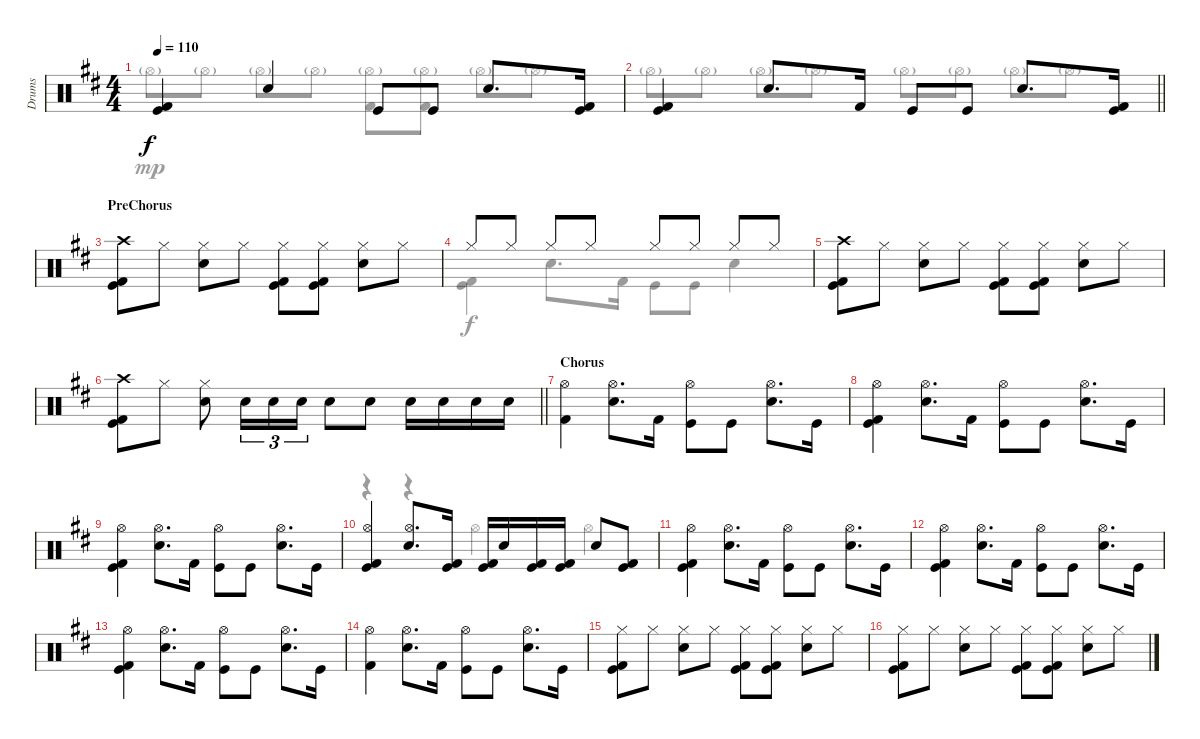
\track ("Drums" "Drums") {instrument percussion}
\staff {score}
\articulation defaults
\voice
\ts (4 4)
\tempo 110
\clef neutral
\ks d
("Kick (hit) 2" "Kick (hit)").4{dy f} "Snare (hit) 2".4 "Kick (hit)".8 "Kick (hit)".8 "Snare (hit) 2".8{d} ("Kick (hit)" "Kick (hit) 2").16 |
\barLineRight lightlight
("Kick (hit) 2" "Kick (hit)").4 "Snare (hit) 2".8{d} "Kick (hit) 2".16 "Kick (hit)".8 "Kick (hit)".8 "Snare (hit) 2".8{d} ("Kick (hit)" "Kick (hit) 2").16 |
\section ("" "PreChorus")
("Crash high (hit)" "Kick (hit)" "Kick (hit) 2").8 "Hi-Hat (closed)".8 ("Hi-Hat (closed)" "Electric Snare (hit)").8 "Hi-Hat (closed)".8 ("Hi-Hat (closed)" "Kick (hit)" "Kick (hit) 2").8 ("Hi-Hat (closed)" "Kick (hit)" "Kick (hit) 2").8 ("Hi-Hat (closed)" "Electric Snare (hit)").8 "Hi-Hat (closed)".8 |
"Hi-Hat (closed)".8 "Hi-Hat (closed)".8 "Hi-Hat (closed)".8 "Hi-Hat (closed)".8 "Hi-Hat (closed)".8 "Hi-Hat (closed)".8 "Hi-Hat (closed)".8 "Hi-Hat (closed)".8 |
("Crash high (hit)" "Kick (hit)" "Kick (hit) 2").8 "Hi-Hat (closed)".8 ("Hi-Hat (closed)" "Electric Snare (hit)").8 "Hi-Hat (closed)".8 ("Hi-Hat (closed)" "Kick (hit)" "Kick (hit) 2").8 ("Hi-Hat (closed)" "Kick (hit)" "Kick (hit) 2").8 ("Hi-Hat (closed)" "Electric Snare (hit)").8 "Hi-Hat (closed)".8 |
\barLineRight lightlight
("Crash high (hit)" "Kick (hit)" "Kick (hit) 2").8 "Hi-Hat (closed)".8 ("Hi-Hat (closed)" "Electric Snare (hit)").8 "Electric Snare (hit)".16{tu (3 2)} "Electric Snare (hit)".16{tu (3 2)} "Electric Snare (hit)".16{tu (3 2)} "Electric Snare (hit)".8 "Electric Snare (hit)".8 "Electric Snare (hit)".16 "Electric Snare (hit)".16 "Electric Snare (hit)".16 "Electric Snare (hit)".16 |
\section ("" "Chorus")
("Kick (hit) 2" "Hi-Hat (open)").4 ("Snare (hit) 2" "Hi-Hat (open)").8{d} "Kick (hit) 2".16 ("Kick (hit)" "Hi-Hat (open)").8 "Kick (hit)".8 ("Snare (hit) 2" "Hi-Hat (open)").8{d} "Kick (hit)".16 |
("Kick (hit) 2" "Kick (hit)" "Hi-Hat (open)").4 ("Snare (hit) 2" "Hi-Hat (open)").8{d} "Kick (hit) 2".16 ("Kick (hit)" "Hi-Hat (open)").8 "Kick (hit)".8 ("Snare (hit) 2" "Hi-Hat (open)").8{d} "Kick (hit)".16 |
("Kick (hit) 2" "Kick (hit)" "Hi-Hat (open)").4 ("Snare (hit) 2" "Hi-Hat (open)").8{d} "Kick (hit) 2".16 ("Kick (hit)" "Hi-Hat (open)").8 "Kick (hit)".8 ("Snare (hit) 2" "Hi-Hat (open)").8{d} "Kick (hit)".16 |
("Kick (hit) 2" "Kick (hit)" "Hi-Hat (open)").4 ("Snare (hit) 2" "Hi-Hat (open)").8{d} ("Kick (hit) 2" "Kick (hit)").16 ("Kick (hit) 2" "Kick (hit)").16 "Electric Snare (hit)".16 ("Kick (hit)" "Kick (hit) 2").16 ("Kick (hit)" "Kick (hit) 2").16 "Electric Snare (hit)".8 ("Kick (hit)" "Kick (hit) 2").8 |
("Kick (hit) 2" "Kick (hit)" "Hi-Hat (open)").4 ("Snare (hit) 2" "Hi-Hat (open)").8{d} "Kick (hit) 2".16 ("Kick (hit)" "Hi-Hat (open)").8 "Kick (hit)".8 ("Snare (hit) 2" "Hi-Hat (open)").8{d} "Kick (hit)".16 |
("Kick (hit) 2" "Kick (hit)" "Hi-Hat (open)").4 ("Snare (hit) 2" "Hi-Hat (open)").8{d} "Kick (hit) 2".16 ("Kick (hit)" "Hi-Hat (open)").8 "Kick (hit)".8 ("Snare (hit) 2" "Hi-Hat (open)").8{d} "Kick (hit)".16 |
("Kick (hit) 2" "Kick (hit)" "Hi-Hat (open)").4 ("Snare (hit) 2" "Hi-Hat (open)").8{d} "Kick (hit) 2".16 ("Kick (hit)" "Hi-Hat (open)").8 "Kick (hit)".8 ("Snare (hit) 2" "Hi-Hat (open)").8{d} "Kick (hit)".16 |
("Kick (hit) 2" "Hi-Hat (open)").4 ("Snare (hit) 2" "Hi-Hat (open)").8{d} "Kick (hit) 2".16 ("Kick (hit)" "Hi-Hat (open)").8 "Kick (hit)".8 ("Snare (hit) 2" "Hi-Hat (open)").8{d} "Kick (hit)".16 |
("Hi-Hat (closed)" "Kick (hit)" "Kick (hit) 2").8 "Hi-Hat (closed)".8 ("Hi-Hat (closed)" "Electric Snare (hit)").8 "Hi-Hat (closed)".8 ("Hi-Hat (closed)" "Kick (hit) 2" "Kick (hit)").8 ("Hi-Hat (closed)" "Kick (hit) 2" "Kick (hit)").8 ("Hi-Hat (closed)" "Electric Snare (hit)").8 "Hi-Hat (closed)".8 |
("Hi-Hat (closed)" "Kick (hit)" "Kick (hit) 2").8 "Hi-Hat (closed)".8 ("Hi-Hat (closed)" "Electric Snare (hit)").8 "Hi-Hat (closed)".8 ("Hi-Hat (closed)" "Kick (hit) 2" "Kick (hit)").8 ("Hi-Hat (closed)" "Kick (hit) 2" "Kick (hit)").8 ("Hi-Hat (closed)" "Electric Snare (hit)").8 "Hi-Hat (closed)".8
\voice
\clef neutral
\ottava regular
\simile none
\ks d "Hi-Hat (open)"{g}.8{dy mp} "Hi-Hat (open)"{g}.8 "Hi-Hat (open)"{g}.8 "Hi-Hat (open)"{g}.8
("Kick (hit) 2" "Hi-Hat (open)"{g}).8 ("Kick (hit) 2" "Hi-Hat (open)"{g}).8 "Hi-Hat (open)"{g}.8 "Hi-Hat (open)"{g}.8 |
\barLineRight lightlight "Hi-Hat (open)"{g}.8 "Hi-Hat (open)"{g}.8 "Hi-Hat (open)"{g}.8 "Hi-Hat (open)"{g}.8 "Hi-Hat (open)"{g}.8 "Hi-Hat (open)"{g}.8 "Hi-Hat (open)"{g}.8 "Hi-Hat (open)"{g}.8
|
|
("Kick (hit) 2" "Kick (hit)").4{dy f} "Electric Snare (hit)".8{d} "Kick (hit) 2".16 "Kick (hit)".8 "Kick (hit)".8 "Electric Snare (hit)".4 |
|
\barLineRight lightlight
|
|
|
|
r.4 r.4 "Hi-Hat (open)".4 "Hi-Hat (open)".4 |
|
|
|
|
|
